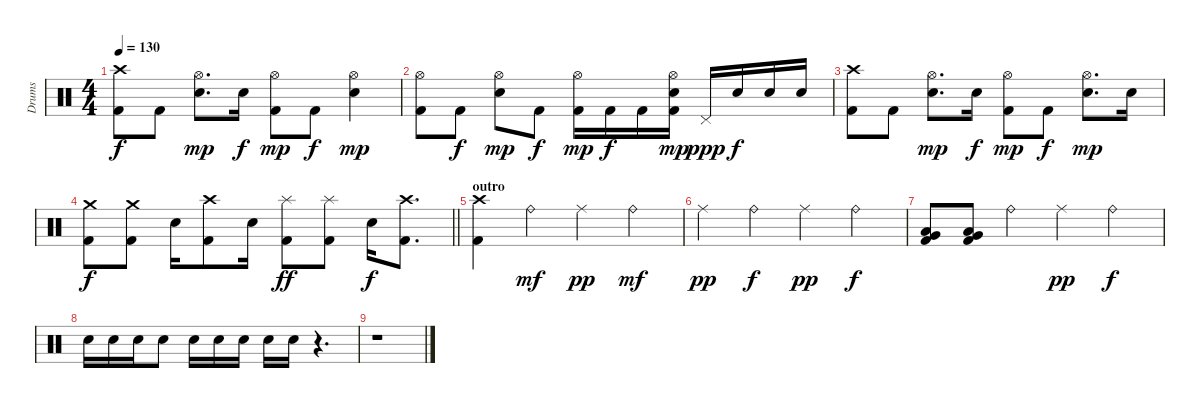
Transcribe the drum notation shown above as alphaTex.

\track ("Drums" "Drums") {instrument percussion}
\staff {score}
\articulation defaults
\ts (4 4)
\tempo 130
\clef neutral
\ks c
("Crash high (hit)" "Kick (hit) 2").8{dy f} "Kick (hit) 2".8 ("Hi-Hat (open)" "Electric Snare (hit)").8{d dy mp} "Electric Snare (hit)".16{dy f} ("Hi-Hat (open)" "Kick (hit) 2").8{dy mp} "Kick (hit) 2".8{dy f} ("Hi-Hat (open)" "Electric Snare (hit)").4{dy mp} |
("Hi-Hat (open)" "Kick (hit) 2").8 "Kick (hit) 2".8{dy f} ("Hi-Hat (open)" "Electric Snare (hit)").8{dy mp} "Kick (hit) 2".8{dy f} ("Hi-Hat (open)" "Kick (hit) 2").16{dy mp} "Kick (hit) 2".16{dy f} "Kick (hit) 2".16 ("Hi-Hat (open)" "Electric Snare (hit)" "Kick (hit) 2").16{dy mp} "Pedal Hi-Hat (hit)".16{dy ppp} "Electric Snare (hit)".16{dy f} "Electric Snare (hit)".16 "Electric Snare (hit)".16 |
("Crash high (hit)" "Kick (hit) 2").8 "Kick (hit) 2".8 ("Hi-Hat (open)" "Electric Snare (hit)").8{d dy mp} "Electric Snare (hit)".16{dy f} ("Hi-Hat (open)" "Kick (hit) 2").8{dy mp} "Kick (hit) 2".8{dy f} ("Hi-Hat (open)" "Electric Snare (hit)").8{d dy mp} "Electric Snare (hit)".16 |
\barLineRight lightlight
("Crash medium (hit)" "Kick (hit) 2").8{dy f} ("Crash medium (hit)" "Kick (hit) 2").8 "Electric Snare (hit)".16 ("Crash high (hit)" "Kick (hit) 2").8 "Electric Snare (hit)".16 ("Splash (hit)" "Kick (hit) 2").8{dy ff} ("Splash (hit)" "Kick (hit) 2").8 "Electric Snare (hit)".16{dy f} ("Crash high (hit)" "Kick (hit) 2").8{d} |
\section ("" "outro")
("Crash high (hit)" "Kick (hit) 2").4 "Ride (bell)".4{dy mf} "Ride (middle)".4{dy pp} "Ride (bell)".4{dy mf} |
"Ride (middle)".4{dy pp} "Ride (bell)".4{dy f} "Ride (middle)".4{dy pp} "Ride (bell)".4{dy f} |
("Very Low Tom (hit)" "Low Floor Tom (hit)" "Kick (hit) 2").8 ("Very Low Tom (hit)" "Low Floor Tom (hit)" "Kick (hit) 2").8 "Ride (bell)".4 "Ride (middle)".4{dy pp} "Ride (bell)".4{dy f} |
"Electric Snare (hit)".16 "Electric Snare (hit)".16 "Electric Snare (hit)".16 "Electric Snare (hit)".8 "Electric Snare (hit)".16 "Electric Snare (hit)".16 "Electric Snare (hit)".16 "Electric Snare (hit)".16 "Electric Snare (hit)".16 r.4{d} |
r.1
